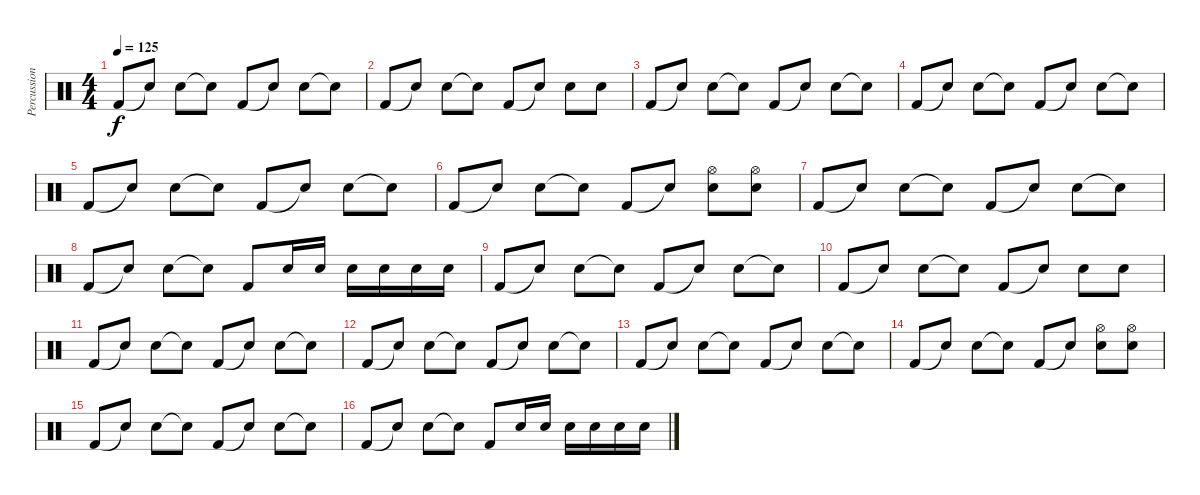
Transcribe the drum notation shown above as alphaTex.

\track ("Percussion" "Percussion") {instrument percussion}
\staff {score}
\articulation defaults
\ts (4 4)
\tempo 125
\clef neutral
\ks c "Kick (hit) 2".8{dy f} "Snare (hit)"{t}.8 "Snare (hit) 2".8 "Snare (hit)"{t}.8 "Kick (hit) 2".8 "Snare (hit)"{t}.8 "Snare (hit) 2".8 "Snare (hit)"{t}.8
|
"Kick (hit) 2".8 "Snare (hit)"{t}.8 "Snare (hit) 2".8 "Snare (hit)"{t}.8 "Kick (hit) 2".8 "Snare (hit)"{t}.8 "Snare (hit) 2".8 "Snare (hit) 2".8 |
"Kick (hit) 2".8 "Snare (hit)"{t}.8 "Snare (hit) 2".8 "Snare (hit)"{t}.8 "Kick (hit) 2".8 "Snare (hit)"{t}.8 "Snare (hit) 2".8 "Snare (hit)"{t}.8 |
"Kick (hit) 2".8 "Snare (hit)"{t}.8 "Snare (hit) 2".8 "Snare (hit)"{t}.8 "Kick (hit) 2".8 "Snare (hit)"{t}.8 "Snare (hit) 2".8 "Snare (hit)"{t}.8 |
"Kick (hit) 2".8 "Snare (hit)"{t}.8 "Snare (hit) 2".8 "Snare (hit)"{t}.8 "Kick (hit) 2".8 "Snare (hit)"{t}.8 "Snare (hit) 2".8 "Snare (hit)"{t}.8 |
"Kick (hit) 2".8 "Snare (hit)"{t}.8 "Snare (hit) 2".8 "Snare (hit)"{t}.8 "Kick (hit) 2".8 "Snare (hit)"{t}.8 ("Snare (hit) 2" "Hi-Hat (open)").8 ("Snare (hit) 2" "Hi-Hat (open)").8 |
"Kick (hit) 2".8 "Snare (hit)"{t}.8 "Snare (hit) 2".8 "Snare (hit)"{t}.8 "Kick (hit) 2".8 "Snare (hit)"{t}.8 "Snare (hit) 2".8 "Snare (hit)"{t}.8 |
"Kick (hit) 2".8 "Snare (hit)"{t}.8 "Snare (hit) 2".8 "Snare (hit)"{t}.8 "Kick (hit) 2".8 "Snare (hit) 2".16 "Snare (hit) 2".16 "Snare (hit) 2".16 "Snare (hit) 2".16 "Snare (hit) 2".16 "Snare (hit) 2".16 |
"Kick (hit) 2".8 "Snare (hit)"{t}.8 "Snare (hit) 2".8 "Snare (hit)"{t}.8 "Kick (hit) 2".8 "Snare (hit)"{t}.8 "Snare (hit) 2".8 "Snare (hit)"{t}.8 |
"Kick (hit) 2".8 "Snare (hit)"{t}.8 "Snare (hit) 2".8 "Snare (hit)"{t}.8 "Kick (hit) 2".8 "Snare (hit)"{t}.8 "Snare (hit) 2".8 "Snare (hit) 2".8 |
"Kick (hit) 2".8 "Snare (hit)"{t}.8 "Snare (hit) 2".8 "Snare (hit)"{t}.8 "Kick (hit) 2".8 "Snare (hit)"{t}.8 "Snare (hit) 2".8 "Snare (hit)"{t}.8 |
"Kick (hit) 2".8 "Snare (hit)"{t}.8 "Snare (hit) 2".8 "Snare (hit)"{t}.8 "Kick (hit) 2".8 "Snare (hit)"{t}.8 "Snare (hit) 2".8 "Snare (hit)"{t}.8 |
"Kick (hit) 2".8 "Snare (hit)"{t}.8 "Snare (hit) 2".8 "Snare (hit)"{t}.8 "Kick (hit) 2".8 "Snare (hit)"{t}.8 "Snare (hit) 2".8 "Snare (hit)"{t}.8 |
"Kick (hit) 2".8 "Snare (hit)"{t}.8 "Snare (hit) 2".8 "Snare (hit)"{t}.8 "Kick (hit) 2".8 "Snare (hit)"{t}.8 ("Snare (hit) 2" "Hi-Hat (open)").8 ("Snare (hit) 2" "Hi-Hat (open)").8 |
"Kick (hit) 2".8 "Snare (hit)"{t}.8 "Snare (hit) 2".8 "Snare (hit)"{t}.8 "Kick (hit) 2".8 "Snare (hit)"{t}.8 "Snare (hit) 2".8 "Snare (hit)"{t}.8 |
"Kick (hit) 2".8 "Snare (hit)"{t}.8 "Snare (hit) 2".8 "Snare (hit)"{t}.8 "Kick (hit) 2".8 "Snare (hit) 2".16 "Snare (hit) 2".16 "Snare (hit) 2".16 "Snare (hit) 2".16 "Snare (hit) 2".16 "Snare (hit) 2".16
